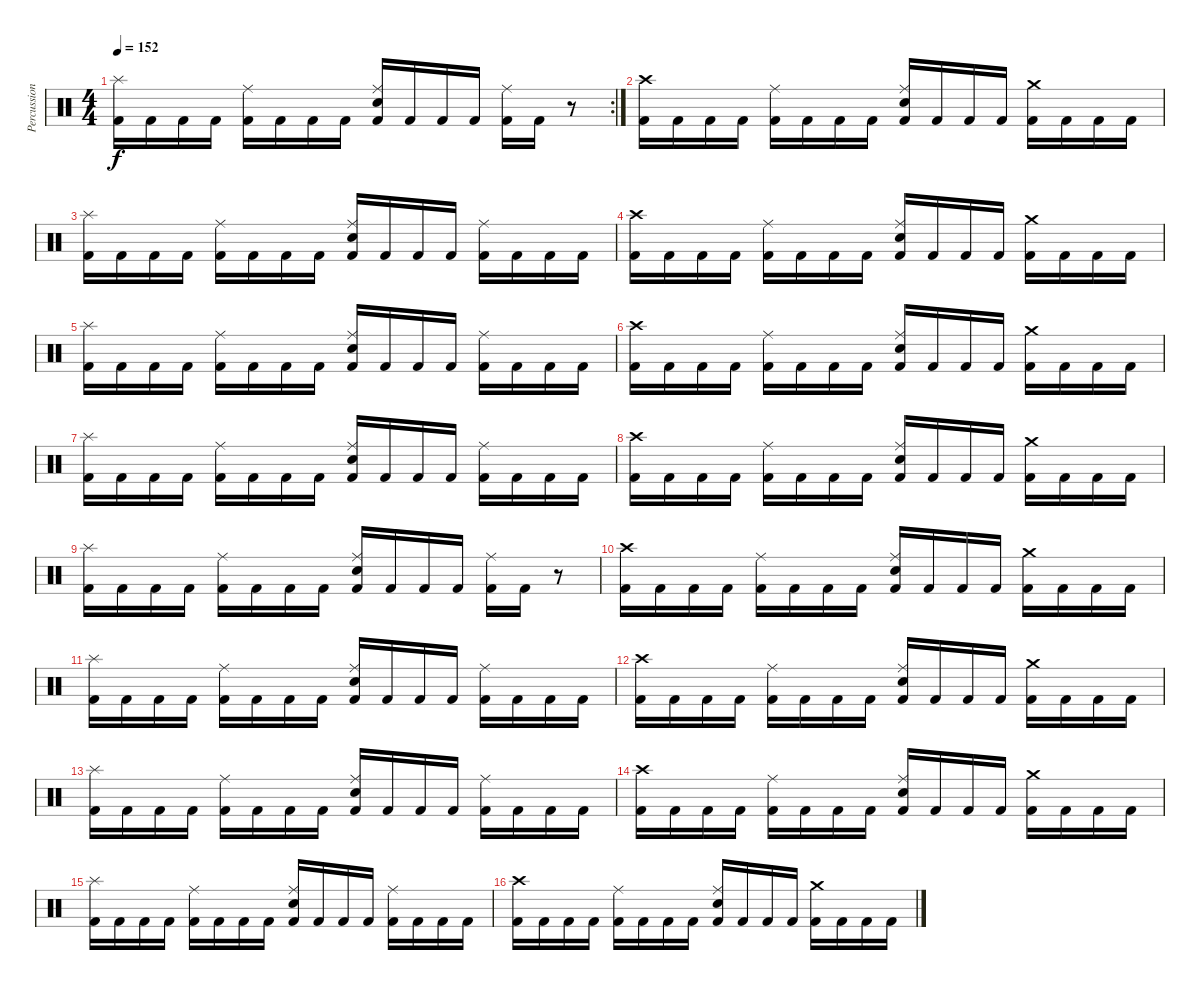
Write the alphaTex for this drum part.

\track ("Percussion" "Percussion") {instrument percussion}
\staff {score}
\articulation defaults
\rc 2
\ts (4 4)
\tempo 152
\clef neutral
\ks c
("Splash (hit)" "Kick (hit) 2").16{dy f} "Kick (hit) 2".16 "Kick (hit) 2".16 "Kick (hit) 2".16 ("Ride (middle)" "Kick (hit) 2").16 "Kick (hit) 2".16 "Kick (hit) 2".16 "Kick (hit) 2".16 ("Ride (middle)" "Electric Snare (hit)" "Kick (hit) 2").16 "Kick (hit) 2".16 "Kick (hit) 2".16 "Kick (hit) 2".16 ("Ride (middle)" "Kick (hit) 2").16 "Kick (hit) 2".16 r.8 |
("Crash high (hit)" "Kick (hit) 2").16 "Kick (hit) 2".16 "Kick (hit) 2".16 "Kick (hit) 2".16 ("Ride (middle)" "Kick (hit) 2").16 "Kick (hit) 2".16 "Kick (hit) 2".16 "Kick (hit) 2".16 ("Ride (middle)" "Electric Snare (hit)" "Kick (hit) 2").16 "Kick (hit) 2".16 "Kick (hit) 2".16 "Kick (hit) 2".16 ("Crash medium (hit)" "Kick (hit) 2").16 "Kick (hit) 2".16 "Kick (hit) 2".16 "Kick (hit) 2".16 |
("Splash (hit)" "Kick (hit) 2").16 "Kick (hit) 2".16 "Kick (hit) 2".16 "Kick (hit) 2".16 ("Ride (middle)" "Kick (hit) 2").16 "Kick (hit) 2".16 "Kick (hit) 2".16 "Kick (hit) 2".16 ("Ride (middle)" "Electric Snare (hit)" "Kick (hit) 2").16 "Kick (hit) 2".16 "Kick (hit) 2".16 "Kick (hit) 2".16 ("Ride (middle)" "Kick (hit) 2").16 "Kick (hit) 2".16 "Kick (hit) 2".16 "Kick (hit) 2".16 |
("Crash high (hit)" "Kick (hit) 2").16 "Kick (hit) 2".16 "Kick (hit) 2".16 "Kick (hit) 2".16 ("Ride (middle)" "Kick (hit) 2").16 "Kick (hit) 2".16 "Kick (hit) 2".16 "Kick (hit) 2".16 ("Ride (middle)" "Electric Snare (hit)" "Kick (hit) 2").16 "Kick (hit) 2".16 "Kick (hit) 2".16 "Kick (hit) 2".16 ("Crash medium (hit)" "Kick (hit) 2").16 "Kick (hit) 2".16 "Kick (hit) 2".16 "Kick (hit) 2".16 |
("Splash (hit)" "Kick (hit) 2").16 "Kick (hit) 2".16 "Kick (hit) 2".16 "Kick (hit) 2".16 ("Ride (middle)" "Kick (hit) 2").16 "Kick (hit) 2".16 "Kick (hit) 2".16 "Kick (hit) 2".16 ("Ride (middle)" "Electric Snare (hit)" "Kick (hit) 2").16 "Kick (hit) 2".16 "Kick (hit) 2".16 "Kick (hit) 2".16 ("Ride (middle)" "Kick (hit) 2").16 "Kick (hit) 2".16 "Kick (hit) 2".16 "Kick (hit) 2".16 |
("Crash high (hit)" "Kick (hit) 2").16 "Kick (hit) 2".16 "Kick (hit) 2".16 "Kick (hit) 2".16 ("Ride (middle)" "Kick (hit) 2").16 "Kick (hit) 2".16 "Kick (hit) 2".16 "Kick (hit) 2".16 ("Ride (middle)" "Electric Snare (hit)" "Kick (hit) 2").16 "Kick (hit) 2".16 "Kick (hit) 2".16 "Kick (hit) 2".16 ("Crash medium (hit)" "Kick (hit) 2").16 "Kick (hit) 2".16 "Kick (hit) 2".16 "Kick (hit) 2".16 |
("Splash (hit)" "Kick (hit) 2").16 "Kick (hit) 2".16 "Kick (hit) 2".16 "Kick (hit) 2".16 ("Ride (middle)" "Kick (hit) 2").16 "Kick (hit) 2".16 "Kick (hit) 2".16 "Kick (hit) 2".16 ("Ride (middle)" "Electric Snare (hit)" "Kick (hit) 2").16 "Kick (hit) 2".16 "Kick (hit) 2".16 "Kick (hit) 2".16 ("Ride (middle)" "Kick (hit) 2").16 "Kick (hit) 2".16 "Kick (hit) 2".16 "Kick (hit) 2".16 |
("Crash high (hit)" "Kick (hit) 2").16 "Kick (hit) 2".16 "Kick (hit) 2".16 "Kick (hit) 2".16 ("Ride (middle)" "Kick (hit) 2").16 "Kick (hit) 2".16 "Kick (hit) 2".16 "Kick (hit) 2".16 ("Ride (middle)" "Electric Snare (hit)" "Kick (hit) 2").16 "Kick (hit) 2".16 "Kick (hit) 2".16 "Kick (hit) 2".16 ("Crash medium (hit)" "Kick (hit) 2").16 "Kick (hit) 2".16 "Kick (hit) 2".16 "Kick (hit) 2".16 |
("Splash (hit)" "Kick (hit) 2").16 "Kick (hit) 2".16 "Kick (hit) 2".16 "Kick (hit) 2".16 ("Ride (middle)" "Kick (hit) 2").16 "Kick (hit) 2".16 "Kick (hit) 2".16 "Kick (hit) 2".16 ("Ride (middle)" "Electric Snare (hit)" "Kick (hit) 2").16 "Kick (hit) 2".16 "Kick (hit) 2".16 "Kick (hit) 2".16 ("Ride (middle)" "Kick (hit) 2").16 "Kick (hit) 2".16 r.8 |
("Crash high (hit)" "Kick (hit) 2").16 "Kick (hit) 2".16 "Kick (hit) 2".16 "Kick (hit) 2".16 ("Ride (middle)" "Kick (hit) 2").16 "Kick (hit) 2".16 "Kick (hit) 2".16 "Kick (hit) 2".16 ("Ride (middle)" "Electric Snare (hit)" "Kick (hit) 2").16 "Kick (hit) 2".16 "Kick (hit) 2".16 "Kick (hit) 2".16 ("Crash medium (hit)" "Kick (hit) 2").16 "Kick (hit) 2".16 "Kick (hit) 2".16 "Kick (hit) 2".16 |
("Splash (hit)" "Kick (hit) 2").16 "Kick (hit) 2".16 "Kick (hit) 2".16 "Kick (hit) 2".16 ("Ride (middle)" "Kick (hit) 2").16 "Kick (hit) 2".16 "Kick (hit) 2".16 "Kick (hit) 2".16 ("Ride (middle)" "Electric Snare (hit)" "Kick (hit) 2").16 "Kick (hit) 2".16 "Kick (hit) 2".16 "Kick (hit) 2".16 ("Ride (middle)" "Kick (hit) 2").16 "Kick (hit) 2".16 "Kick (hit) 2".16 "Kick (hit) 2".16 |
("Crash high (hit)" "Kick (hit) 2").16 "Kick (hit) 2".16 "Kick (hit) 2".16 "Kick (hit) 2".16 ("Ride (middle)" "Kick (hit) 2").16 "Kick (hit) 2".16 "Kick (hit) 2".16 "Kick (hit) 2".16 ("Ride (middle)" "Electric Snare (hit)" "Kick (hit) 2").16 "Kick (hit) 2".16 "Kick (hit) 2".16 "Kick (hit) 2".16 ("Crash medium (hit)" "Kick (hit) 2").16 "Kick (hit) 2".16 "Kick (hit) 2".16 "Kick (hit) 2".16 |
("Splash (hit)" "Kick (hit) 2").16 "Kick (hit) 2".16 "Kick (hit) 2".16 "Kick (hit) 2".16 ("Ride (middle)" "Kick (hit) 2").16 "Kick (hit) 2".16 "Kick (hit) 2".16 "Kick (hit) 2".16 ("Ride (middle)" "Electric Snare (hit)" "Kick (hit) 2").16 "Kick (hit) 2".16 "Kick (hit) 2".16 "Kick (hit) 2".16 ("Ride (middle)" "Kick (hit) 2").16 "Kick (hit) 2".16 "Kick (hit) 2".16 "Kick (hit) 2".16 |
("Crash high (hit)" "Kick (hit) 2").16 "Kick (hit) 2".16 "Kick (hit) 2".16 "Kick (hit) 2".16 ("Ride (middle)" "Kick (hit) 2").16 "Kick (hit) 2".16 "Kick (hit) 2".16 "Kick (hit) 2".16 ("Ride (middle)" "Electric Snare (hit)" "Kick (hit) 2").16 "Kick (hit) 2".16 "Kick (hit) 2".16 "Kick (hit) 2".16 ("Crash medium (hit)" "Kick (hit) 2").16 "Kick (hit) 2".16 "Kick (hit) 2".16 "Kick (hit) 2".16 |
("Splash (hit)" "Kick (hit) 2").16 "Kick (hit) 2".16 "Kick (hit) 2".16 "Kick (hit) 2".16 ("Ride (middle)" "Kick (hit) 2").16 "Kick (hit) 2".16 "Kick (hit) 2".16 "Kick (hit) 2".16 ("Ride (middle)" "Electric Snare (hit)" "Kick (hit) 2").16 "Kick (hit) 2".16 "Kick (hit) 2".16 "Kick (hit) 2".16 ("Ride (middle)" "Kick (hit) 2").16 "Kick (hit) 2".16 "Kick (hit) 2".16 "Kick (hit) 2".16 |
("Crash high (hit)" "Kick (hit) 2").16 "Kick (hit) 2".16 "Kick (hit) 2".16 "Kick (hit) 2".16 ("Ride (middle)" "Kick (hit) 2").16 "Kick (hit) 2".16 "Kick (hit) 2".16 "Kick (hit) 2".16 ("Ride (middle)" "Electric Snare (hit)" "Kick (hit) 2").16 "Kick (hit) 2".16 "Kick (hit) 2".16 "Kick (hit) 2".16 ("Crash medium (hit)" "Kick (hit) 2").16 "Kick (hit) 2".16 "Kick (hit) 2".16 "Kick (hit) 2".16
